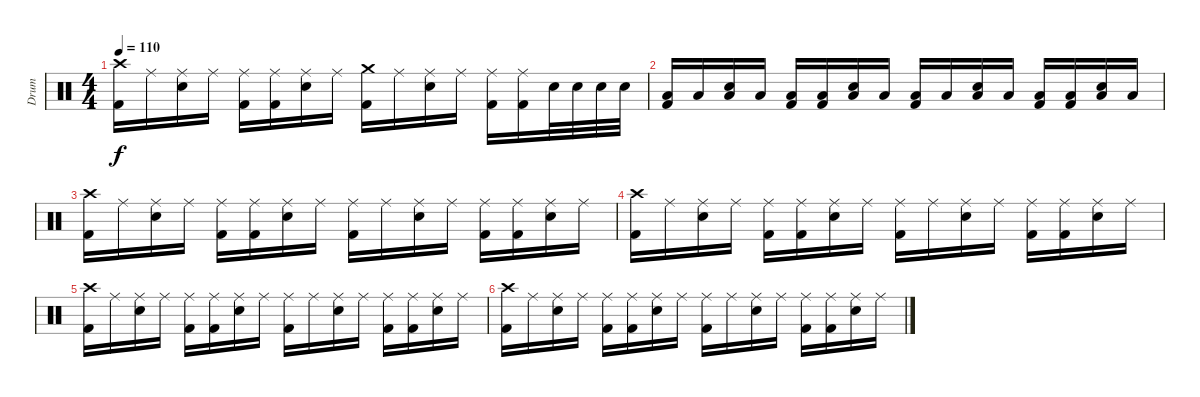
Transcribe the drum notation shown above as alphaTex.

\track ("Drum" "Drum") {instrument percussion}
\staff {score}
\articulation defaults
\ts (4 4)
\tempo 110
\clef neutral
\ks c
("Crash high (hit)" "Kick (hit) 2").16{dy f} "Ride (middle)".16 ("Ride (middle)" "Electric Snare (hit)").16 "Ride (middle)".16 ("Ride (middle)" "Kick (hit) 2").16 ("Ride (middle)" "Kick (hit) 2").16 ("Ride (middle)" "Electric Snare (hit)").16 "Ride (middle)".16 ("Crash medium (hit)" "Kick (hit) 2").16 "Ride (middle)".16 ("Ride (middle)" "Electric Snare (hit)").16 "Ride (middle)".16 ("Ride (middle)" "Kick (hit) 2").16 ("Ride (middle)" "Kick (hit) 2").16 "Electric Snare (hit)".32 "Electric Snare (hit)".32 "Electric Snare (hit)".32 "Electric Snare (hit)".32 |
("Low Floor Tom (hit)" "Kick (hit) 2").16 "Low Floor Tom (hit)".16 ("Low Floor Tom (hit)" "Electric Snare (hit)").16 "Low Floor Tom (hit)".16 ("Low Floor Tom (hit)" "Kick (hit) 2").16 ("Low Floor Tom (hit)" "Kick (hit) 2").16 ("Low Floor Tom (hit)" "Electric Snare (hit)").16 "Low Floor Tom (hit)".16 ("Low Floor Tom (hit)" "Kick (hit) 2").16 "Low Floor Tom (hit)".16 ("Low Floor Tom (hit)" "Electric Snare (hit)").16 "Low Floor Tom (hit)".16 ("Low Floor Tom (hit)" "Kick (hit) 2").16 ("Low Floor Tom (hit)" "Kick (hit) 2").16 ("Low Floor Tom (hit)" "Electric Snare (hit)").16 "Low Floor Tom (hit)".16 |
("Crash high (hit)" "Kick (hit) 2").16 "Ride (middle)".16 ("Ride (middle)" "Electric Snare (hit)").16 "Ride (middle)".16 ("Ride (middle)" "Kick (hit) 2").16 ("Ride (middle)" "Kick (hit) 2").16 ("Ride (middle)" "Electric Snare (hit)").16 "Ride (middle)".16 ("Ride (middle)" "Kick (hit) 2").16 "Ride (middle)".16 ("Ride (middle)" "Electric Snare (hit)").16 "Ride (middle)".16 ("Ride (middle)" "Kick (hit) 2").16 ("Ride (middle)" "Kick (hit) 2").16 ("Ride (middle)" "Electric Snare (hit)").16 "Ride (middle)".16 |
("Crash high (hit)" "Kick (hit) 2").16 "Ride (middle)".16 ("Ride (middle)" "Electric Snare (hit)").16 "Ride (middle)".16 ("Ride (middle)" "Kick (hit) 2").16 ("Ride (middle)" "Kick (hit) 2").16 ("Ride (middle)" "Electric Snare (hit)").16 "Ride (middle)".16 ("Ride (middle)" "Kick (hit) 2").16 "Ride (middle)".16 ("Ride (middle)" "Electric Snare (hit)").16 "Ride (middle)".16 ("Ride (middle)" "Kick (hit) 2").16 ("Ride (middle)" "Kick (hit) 2").16 ("Ride (middle)" "Electric Snare (hit)").16 "Ride (middle)".16 |
("Crash high (hit)" "Kick (hit) 2").16 "Ride (middle)".16 ("Ride (middle)" "Electric Snare (hit)").16 "Ride (middle)".16 ("Ride (middle)" "Kick (hit) 2").16 ("Ride (middle)" "Kick (hit) 2").16 ("Ride (middle)" "Electric Snare (hit)").16 "Ride (middle)".16 ("Ride (middle)" "Kick (hit) 2").16 "Ride (middle)".16 ("Ride (middle)" "Electric Snare (hit)").16 "Ride (middle)".16 ("Ride (middle)" "Kick (hit) 2").16 ("Ride (middle)" "Kick (hit) 2").16 ("Ride (middle)" "Electric Snare (hit)").16 "Ride (middle)".16 |
("Crash high (hit)" "Kick (hit) 2").16 "Ride (middle)".16 ("Ride (middle)" "Electric Snare (hit)").16 "Ride (middle)".16 ("Ride (middle)" "Kick (hit) 2").16 ("Ride (middle)" "Kick (hit) 2").16 ("Ride (middle)" "Electric Snare (hit)").16 "Ride (middle)".16 ("Ride (middle)" "Kick (hit) 2").16 "Ride (middle)".16 ("Ride (middle)" "Electric Snare (hit)").16 "Ride (middle)".16 ("Ride (middle)" "Kick (hit) 2").16 ("Ride (middle)" "Kick (hit) 2").16 ("Ride (middle)" "Electric Snare (hit)").16 "Ride (middle)".16
